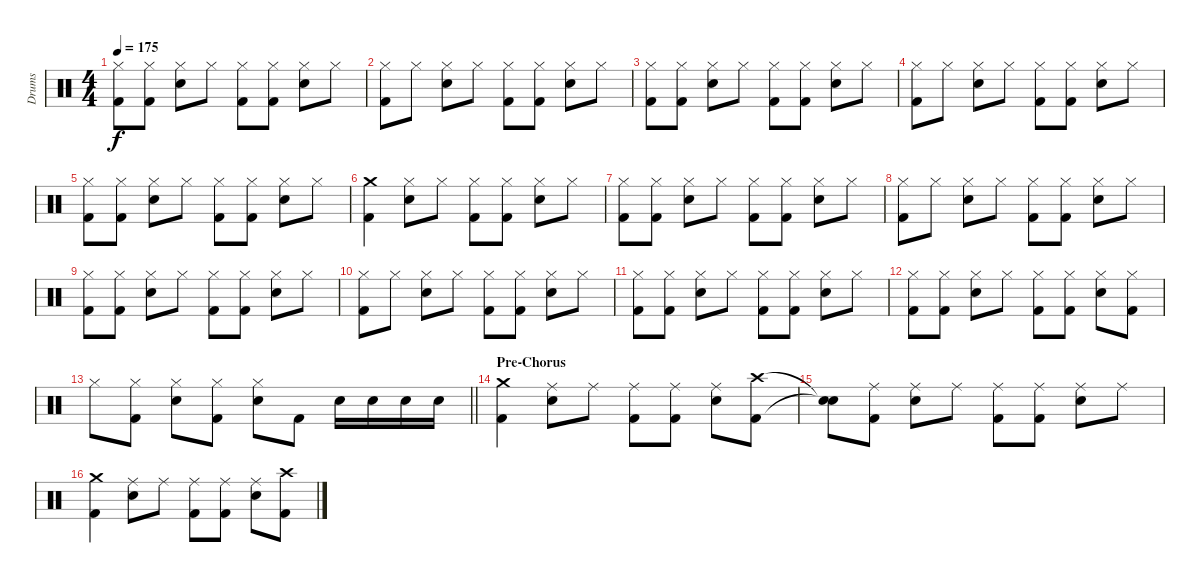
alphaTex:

\track ("Drums" "Drums") {instrument percussion}
\staff {score}
\articulation defaults
\ts (4 4)
\tempo 175
\clef neutral
\ks c
("Hi-Hat (closed)" "Kick (hit) 2").8{dy f} ("Hi-Hat (closed)" "Kick (hit) 2").8 ("Hi-Hat (closed)" "Electric Snare (hit)").8 "Hi-Hat (closed)".8 ("Hi-Hat (closed)" "Kick (hit) 2").8 ("Hi-Hat (closed)" "Kick (hit) 2").8 ("Hi-Hat (closed)" "Electric Snare (hit)").8 "Hi-Hat (closed)".8 |
("Hi-Hat (closed)" "Kick (hit) 2").8 "Hi-Hat (closed)".8 ("Hi-Hat (closed)" "Electric Snare (hit)").8 "Hi-Hat (closed)".8 ("Hi-Hat (closed)" "Kick (hit) 2").8 ("Hi-Hat (closed)" "Kick (hit) 2").8 ("Hi-Hat (closed)" "Electric Snare (hit)").8 "Hi-Hat (closed)".8 |
("Hi-Hat (closed)" "Kick (hit) 2").8 ("Hi-Hat (closed)" "Kick (hit) 2").8 ("Hi-Hat (closed)" "Electric Snare (hit)").8 "Hi-Hat (closed)".8 ("Hi-Hat (closed)" "Kick (hit) 2").8 ("Hi-Hat (closed)" "Kick (hit) 2").8 ("Hi-Hat (closed)" "Electric Snare (hit)").8 "Hi-Hat (closed)".8 |
("Hi-Hat (closed)" "Kick (hit) 2").8 "Hi-Hat (closed)".8 ("Hi-Hat (closed)" "Electric Snare (hit)").8 "Hi-Hat (closed)".8 ("Hi-Hat (closed)" "Kick (hit) 2").8 ("Hi-Hat (closed)" "Kick (hit) 2").8 ("Hi-Hat (closed)" "Electric Snare (hit)").8 "Hi-Hat (closed)".8 |
("Hi-Hat (closed)" "Kick (hit) 2").8 ("Hi-Hat (closed)" "Kick (hit) 2").8 ("Hi-Hat (closed)" "Electric Snare (hit)").8 "Hi-Hat (closed)".8 ("Hi-Hat (closed)" "Kick (hit) 2").8 ("Hi-Hat (closed)" "Kick (hit) 2").8 ("Hi-Hat (closed)" "Electric Snare (hit)").8 "Hi-Hat (closed)".8 |
("Crash medium (hit)" "Kick (hit) 2").4 ("Hi-Hat (closed)" "Electric Snare (hit)").8 "Hi-Hat (closed)".8 ("Hi-Hat (closed)" "Kick (hit) 2").8 ("Hi-Hat (closed)" "Kick (hit) 2").8 ("Hi-Hat (closed)" "Electric Snare (hit)").8 "Hi-Hat (closed)".8 |
("Hi-Hat (closed)" "Kick (hit) 2").8 ("Hi-Hat (closed)" "Kick (hit) 2").8 ("Hi-Hat (closed)" "Electric Snare (hit)").8 "Hi-Hat (closed)".8 ("Hi-Hat (closed)" "Kick (hit) 2").8 ("Hi-Hat (closed)" "Kick (hit) 2").8 ("Hi-Hat (closed)" "Electric Snare (hit)").8 "Hi-Hat (closed)".8 |
("Hi-Hat (closed)" "Kick (hit) 2").8 "Hi-Hat (closed)".8 ("Hi-Hat (closed)" "Electric Snare (hit)").8 "Hi-Hat (closed)".8 ("Hi-Hat (closed)" "Kick (hit) 2").8 ("Hi-Hat (closed)" "Kick (hit) 2").8 ("Hi-Hat (closed)" "Electric Snare (hit)").8 "Hi-Hat (closed)".8 |
("Hi-Hat (closed)" "Kick (hit) 2").8 ("Hi-Hat (closed)" "Kick (hit) 2").8 ("Hi-Hat (closed)" "Electric Snare (hit)").8 "Hi-Hat (closed)".8 ("Hi-Hat (closed)" "Kick (hit) 2").8 ("Hi-Hat (closed)" "Kick (hit) 2").8 ("Hi-Hat (closed)" "Electric Snare (hit)").8 "Hi-Hat (closed)".8 |
("Hi-Hat (closed)" "Kick (hit) 2").8 "Hi-Hat (closed)".8 ("Hi-Hat (closed)" "Electric Snare (hit)").8 "Hi-Hat (closed)".8 ("Hi-Hat (closed)" "Kick (hit) 2").8 ("Hi-Hat (closed)" "Kick (hit) 2").8 ("Hi-Hat (closed)" "Electric Snare (hit)").8 "Hi-Hat (closed)".8 |
("Hi-Hat (closed)" "Kick (hit) 2").8 ("Hi-Hat (closed)" "Kick (hit) 2").8 ("Hi-Hat (closed)" "Electric Snare (hit)").8 "Hi-Hat (closed)".8 ("Hi-Hat (closed)" "Kick (hit) 2").8 ("Hi-Hat (closed)" "Kick (hit) 2").8 ("Hi-Hat (closed)" "Electric Snare (hit)").8 "Hi-Hat (closed)".8 |
("Hi-Hat (closed)" "Kick (hit) 2").8 ("Hi-Hat (closed)" "Kick (hit) 2").8 ("Hi-Hat (closed)" "Electric Snare (hit)").8 "Hi-Hat (closed)".8 ("Hi-Hat (closed)" "Kick (hit) 2").8 ("Hi-Hat (closed)" "Kick (hit) 2").8 ("Hi-Hat (closed)" "Electric Snare (hit)").8 ("Hi-Hat (closed)" "Kick (hit) 2").8 |
\barLineRight lightlight "Hi-Hat (closed)".8
("Hi-Hat (closed)" "Kick (hit) 2").8 ("Hi-Hat (closed)" "Electric Snare (hit)").8 ("Hi-Hat (closed)" "Kick (hit) 2").8 ("Hi-Hat (closed)" "Electric Snare (hit)").8 "Kick (hit) 2".8 "Electric Snare (hit)".16 "Electric Snare (hit)".16 "Electric Snare (hit)".16 "Electric Snare (hit)".16 |
\section ("" "Pre-Chorus")
("Crash medium (hit)" "Kick (hit) 2").4 ("Ride (middle)" "Electric Snare (hit)").8 "Ride (middle)".8 ("Ride (middle)" "Kick (hit) 2").8 ("Ride (middle)" "Kick (hit) 2").8 ("Ride (middle)" "Electric Snare (hit)").8 ("Crash high (hit)" "Kick (hit) 2").8 |
("Snare (hit)"{t} "Snare (hit)"{t}).8 ("Ride (middle)" "Kick (hit) 2").8 ("Ride (middle)" "Electric Snare (hit)").8 "Ride (middle)".8 ("Ride (middle)" "Kick (hit) 2").8 ("Ride (middle)" "Kick (hit) 2").8 ("Ride (middle)" "Electric Snare (hit)").8 "Ride (middle)".8 |
("Crash medium (hit)" "Kick (hit) 2").4 ("Ride (middle)" "Electric Snare (hit)").8 "Ride (middle)".8 ("Ride (middle)" "Kick (hit) 2").8 ("Ride (middle)" "Kick (hit) 2").8 ("Ride (middle)" "Electric Snare (hit)").8 ("Crash high (hit)" "Kick (hit) 2").8
